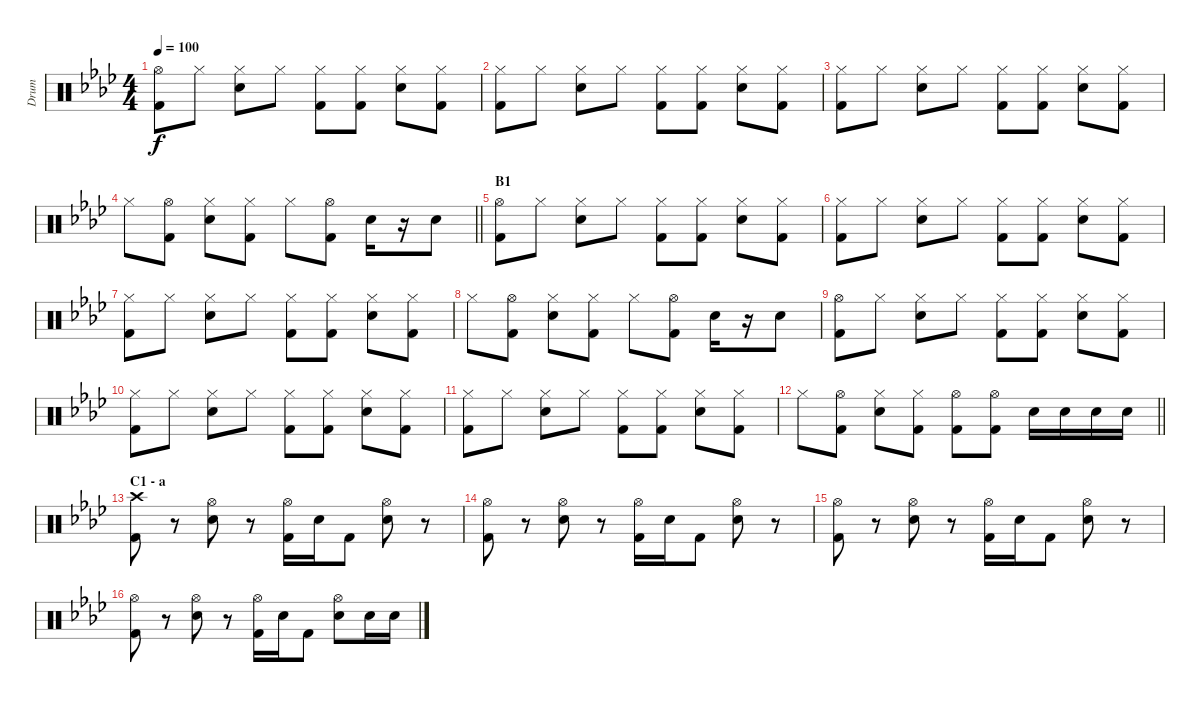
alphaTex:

\track ("Drum" "Drum") {instrument percussion}
\staff {score}
\articulation defaults
\ts (4 4)
\tempo 100
\clef neutral
\ks ab
("Hi-Hat (open)" "Kick (hit) 2").8{dy f} "Hi-Hat (closed)".8 ("Hi-Hat (closed)" "Snare (hit) 2").8 "Hi-Hat (closed)".8 ("Hi-Hat (closed)" "Kick (hit) 2").8 ("Hi-Hat (closed)" "Kick (hit) 2").8 ("Hi-Hat (closed)" "Snare (hit) 2").8 ("Hi-Hat (closed)" "Kick (hit) 2").8 |
("Hi-Hat (closed)" "Kick (hit) 2").8 "Hi-Hat (closed)".8 ("Hi-Hat (closed)" "Snare (hit) 2").8 "Hi-Hat (closed)".8 ("Hi-Hat (closed)" "Kick (hit) 2").8 ("Hi-Hat (closed)" "Kick (hit) 2").8 ("Hi-Hat (closed)" "Snare (hit) 2").8 ("Hi-Hat (closed)" "Kick (hit) 2").8 |
("Hi-Hat (closed)" "Kick (hit) 2").8 "Hi-Hat (closed)".8 ("Hi-Hat (closed)" "Snare (hit) 2").8 "Hi-Hat (closed)".8 ("Hi-Hat (closed)" "Kick (hit) 2").8 ("Hi-Hat (closed)" "Kick (hit) 2").8 ("Hi-Hat (closed)" "Snare (hit) 2").8 ("Hi-Hat (closed)" "Kick (hit) 2").8 |
\barLineRight lightlight "Hi-Hat (closed)".8
("Hi-Hat (open)" "Kick (hit) 2").8 ("Hi-Hat (closed)" "Snare (hit) 2").8 ("Hi-Hat (closed)" "Kick (hit) 2").8 "Hi-Hat (closed)".8 ("Hi-Hat (open)" "Kick (hit) 2").8 "Snare (hit) 2".16 r.16 "Snare (hit) 2".8 |
\section ("" "B1")
("Hi-Hat (open)" "Kick (hit) 2").8 "Hi-Hat (closed)".8 ("Hi-Hat (closed)" "Snare (hit) 2").8 "Hi-Hat (closed)".8 ("Hi-Hat (closed)" "Kick (hit) 2").8 ("Hi-Hat (closed)" "Kick (hit) 2").8 ("Hi-Hat (closed)" "Snare (hit) 2").8 ("Hi-Hat (closed)" "Kick (hit) 2").8 |
("Hi-Hat (closed)" "Kick (hit) 2").8 "Hi-Hat (closed)".8 ("Hi-Hat (closed)" "Snare (hit) 2").8 "Hi-Hat (closed)".8 ("Hi-Hat (closed)" "Kick (hit) 2").8 ("Hi-Hat (closed)" "Kick (hit) 2").8 ("Hi-Hat (closed)" "Snare (hit) 2").8 ("Hi-Hat (closed)" "Kick (hit) 2").8 |
("Hi-Hat (closed)" "Kick (hit) 2").8 "Hi-Hat (closed)".8 ("Hi-Hat (closed)" "Snare (hit) 2").8 "Hi-Hat (closed)".8 ("Hi-Hat (closed)" "Kick (hit) 2").8 ("Hi-Hat (closed)" "Kick (hit) 2").8 ("Hi-Hat (closed)" "Snare (hit) 2").8 ("Hi-Hat (closed)" "Kick (hit) 2").8 |
"Hi-Hat (closed)".8 ("Hi-Hat (open)" "Kick (hit) 2").8 ("Hi-Hat (closed)" "Snare (hit) 2").8 ("Hi-Hat (closed)" "Kick (hit) 2").8 "Hi-Hat (closed)".8 ("Hi-Hat (open)" "Kick (hit) 2").8 "Snare (hit) 2".16 r.16 "Snare (hit) 2".8 |
("Hi-Hat (open)" "Kick (hit) 2").8 "Hi-Hat (closed)".8 ("Hi-Hat (closed)" "Snare (hit) 2").8 "Hi-Hat (closed)".8 ("Hi-Hat (closed)" "Kick (hit) 2").8 ("Hi-Hat (closed)" "Kick (hit) 2").8 ("Hi-Hat (closed)" "Snare (hit) 2").8 ("Hi-Hat (closed)" "Kick (hit) 2").8 |
("Hi-Hat (closed)" "Kick (hit) 2").8 "Hi-Hat (closed)".8 ("Hi-Hat (closed)" "Snare (hit) 2").8 "Hi-Hat (closed)".8 ("Hi-Hat (closed)" "Kick (hit) 2").8 ("Hi-Hat (closed)" "Kick (hit) 2").8 ("Hi-Hat (closed)" "Snare (hit) 2").8 ("Hi-Hat (closed)" "Kick (hit) 2").8 |
("Hi-Hat (closed)" "Kick (hit) 2").8 "Hi-Hat (closed)".8 ("Hi-Hat (closed)" "Snare (hit) 2").8 "Hi-Hat (closed)".8 ("Hi-Hat (closed)" "Kick (hit) 2").8 ("Hi-Hat (closed)" "Kick (hit) 2").8 ("Hi-Hat (closed)" "Snare (hit) 2").8 ("Hi-Hat (closed)" "Kick (hit) 2").8 |
\barLineRight lightlight "Hi-Hat (closed)".8
("Hi-Hat (open)" "Kick (hit) 2").8 ("Hi-Hat (closed)" "Snare (hit) 2").8 ("Hi-Hat (closed)" "Kick (hit) 2").8 ("Hi-Hat (open)" "Kick (hit) 2").8 ("Hi-Hat (open)" "Kick (hit) 2").8 "Snare (hit) 2".16 "Snare (hit) 2".16 "Snare (hit) 2".16 "Snare (hit) 2".16 |
\section ("" "C1 - a")
("Crash high (hit)" "Kick (hit) 2").8 r.8 ("Hi-Hat (open)" "Snare (hit) 2").8 r.8 ("Hi-Hat (open)" "Kick (hit) 2").16 "Snare (hit) 2".16 "Kick (hit) 2".8 ("Hi-Hat (open)" "Snare (hit) 2").8 r.8 |
("Hi-Hat (open)" "Kick (hit) 2").8 r.8 ("Hi-Hat (open)" "Snare (hit) 2").8 r.8 ("Hi-Hat (open)" "Kick (hit) 2").16 "Snare (hit) 2".16 "Kick (hit) 2".8 ("Hi-Hat (open)" "Snare (hit) 2").8 r.8 |
("Hi-Hat (open)" "Kick (hit) 2").8 r.8 ("Hi-Hat (open)" "Snare (hit) 2").8 r.8 ("Hi-Hat (open)" "Kick (hit) 2").16 "Snare (hit) 2".16 "Kick (hit) 2".8 ("Hi-Hat (open)" "Snare (hit) 2").8 r.8 |
("Hi-Hat (open)" "Kick (hit) 2").8 r.8 ("Hi-Hat (open)" "Snare (hit) 2").8 r.8 ("Hi-Hat (open)" "Kick (hit) 2").16 "Snare (hit) 2".16 "Kick (hit) 2".8 ("Hi-Hat (open)" "Snare (hit) 2").8 "Snare (hit) 2".16 "Snare (hit) 2".16
